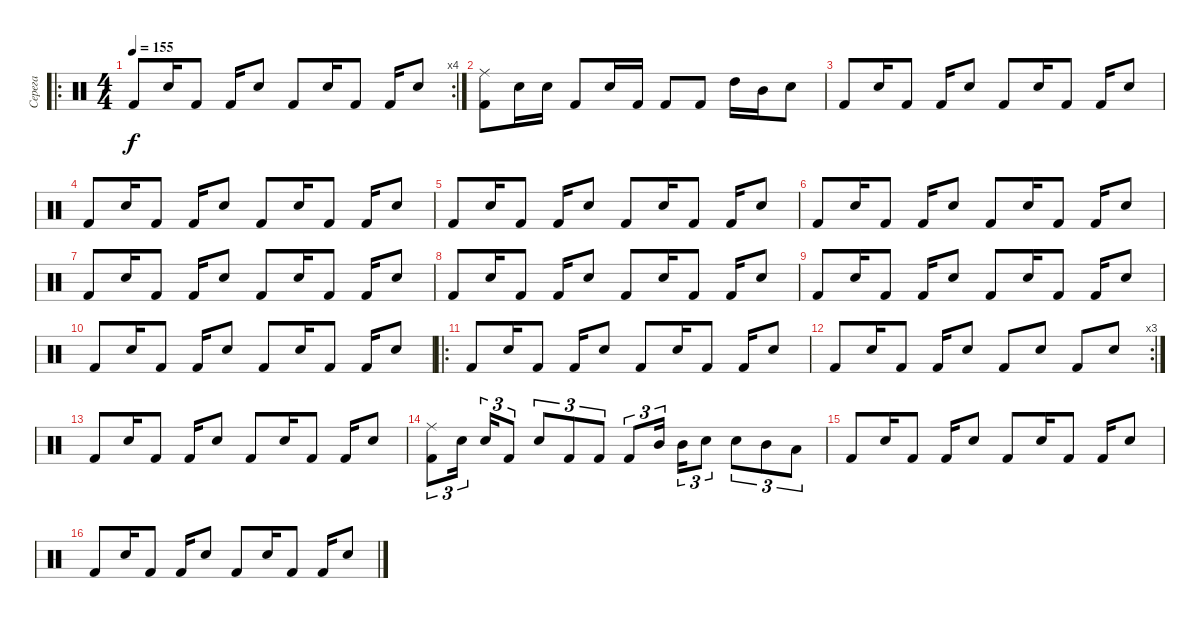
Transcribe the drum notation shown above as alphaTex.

\track ("Серега" "Серега") {instrument percussion}
\staff {score}
\articulation defaults
\ro
\rc 4
\ts (4 4)
\tempo 155
\clef neutral
\ks c "Kick (hit) 2".8{dy f} "Snare (hit) 2".16 "Kick (hit) 2".8 "Kick (hit) 2".16 "Snare (hit) 2".8 "Kick (hit) 2".8 "Snare (hit) 2".16 "Kick (hit) 2".8 "Kick (hit) 2".16 "Snare (hit) 2".8
|
("Ride (middle)" "Kick (hit) 2").8 "Snare (hit) 2".16 "Snare (hit) 2".16 "Kick (hit) 2".8 "Snare (hit) 2".16 "Kick (hit) 2".16 "Kick (hit) 2".8 "Kick (hit) 2".8 "High Tom (hit)".16 "Mid Tom (hit)".16 "Snare (hit) 2".8 |
"Kick (hit) 2".8 "Snare (hit) 2".16 "Kick (hit) 2".8 "Kick (hit) 2".16 "Snare (hit) 2".8 "Kick (hit) 2".8 "Snare (hit) 2".16 "Kick (hit) 2".8 "Kick (hit) 2".16 "Snare (hit) 2".8 |
"Kick (hit) 2".8 "Snare (hit) 2".16 "Kick (hit) 2".8 "Kick (hit) 2".16 "Snare (hit) 2".8 "Kick (hit) 2".8 "Snare (hit) 2".16 "Kick (hit) 2".8 "Kick (hit) 2".16 "Snare (hit) 2".8 |
"Kick (hit) 2".8 "Snare (hit) 2".16 "Kick (hit) 2".8 "Kick (hit) 2".16 "Snare (hit) 2".8 "Kick (hit) 2".8 "Snare (hit) 2".16 "Kick (hit) 2".8 "Kick (hit) 2".16 "Snare (hit) 2".8 |
"Kick (hit) 2".8 "Snare (hit) 2".16 "Kick (hit) 2".8 "Kick (hit) 2".16 "Snare (hit) 2".8 "Kick (hit) 2".8 "Snare (hit) 2".16 "Kick (hit) 2".8 "Kick (hit) 2".16 "Snare (hit) 2".8 |
"Kick (hit) 2".8 "Snare (hit) 2".16 "Kick (hit) 2".8 "Kick (hit) 2".16 "Snare (hit) 2".8 "Kick (hit) 2".8 "Snare (hit) 2".16 "Kick (hit) 2".8 "Kick (hit) 2".16 "Snare (hit) 2".8 |
"Kick (hit) 2".8 "Snare (hit) 2".16 "Kick (hit) 2".8 "Kick (hit) 2".16 "Snare (hit) 2".8 "Kick (hit) 2".8 "Snare (hit) 2".16 "Kick (hit) 2".8 "Kick (hit) 2".16 "Snare (hit) 2".8 |
"Kick (hit) 2".8 "Snare (hit) 2".16 "Kick (hit) 2".8 "Kick (hit) 2".16 "Snare (hit) 2".8 "Kick (hit) 2".8 "Snare (hit) 2".16 "Kick (hit) 2".8 "Kick (hit) 2".16 "Snare (hit) 2".8 |
"Kick (hit) 2".8 "Snare (hit) 2".16 "Kick (hit) 2".8 "Kick (hit) 2".16 "Snare (hit) 2".8 "Kick (hit) 2".8 "Snare (hit) 2".16 "Kick (hit) 2".8 "Kick (hit) 2".16 "Snare (hit) 2".8 |
\ro "Kick (hit) 2".8 "Snare (hit) 2".16 "Kick (hit) 2".8 "Kick (hit) 2".16 "Snare (hit) 2".8 "Kick (hit) 2".8 "Snare (hit) 2".16 "Kick (hit) 2".8 "Kick (hit) 2".16 "Snare (hit) 2".8
|
\rc 3 "Kick (hit) 2".8 "Snare (hit) 2".16 "Kick (hit) 2".8 "Kick (hit) 2".16 "Snare (hit) 2".8 "Kick (hit) 2".8 "Snare (hit) 2".8 "Kick (hit) 2".8 "Snare (hit) 2".8
|
"Kick (hit) 2".8 "Snare (hit) 2".16 "Kick (hit) 2".8 "Kick (hit) 2".16 "Snare (hit) 2".8 "Kick (hit) 2".8 "Snare (hit) 2".16 "Kick (hit) 2".8 "Kick (hit) 2".16 "Snare (hit) 2".8 |
("Ride (middle)" "Kick (hit) 2").8{tu (3 2)} "Snare (hit) 2".16{tu (3 2)} "Snare (hit) 2".16{tu (3 2)} "Kick (hit) 2".8{tu (3 2)} "Snare (hit) 2".8{tu (3 2)} "Kick (hit) 2".8{tu (3 2)} "Kick (hit) 2".8{tu (3 2)} "Kick (hit) 2".8{tu (3 2)} "Mid Tom (hit)".16{tu (3 2)} "Mid Tom (hit)".16{tu (3 2)} "Snare (hit) 2".8{tu (3 2)} "Snare (hit) 2".8{tu (3 2)} "Mid Tom (hit)".8{tu (3 2)} "Low Tom (hit)".8{tu (3 2)} |
"Kick (hit) 2".8 "Snare (hit) 2".16 "Kick (hit) 2".8 "Kick (hit) 2".16 "Snare (hit) 2".8 "Kick (hit) 2".8 "Snare (hit) 2".16 "Kick (hit) 2".8 "Kick (hit) 2".16 "Snare (hit) 2".8 |
"Kick (hit) 2".8 "Snare (hit) 2".16 "Kick (hit) 2".8 "Kick (hit) 2".16 "Snare (hit) 2".8 "Kick (hit) 2".8 "Snare (hit) 2".16 "Kick (hit) 2".8 "Kick (hit) 2".16 "Snare (hit) 2".8
